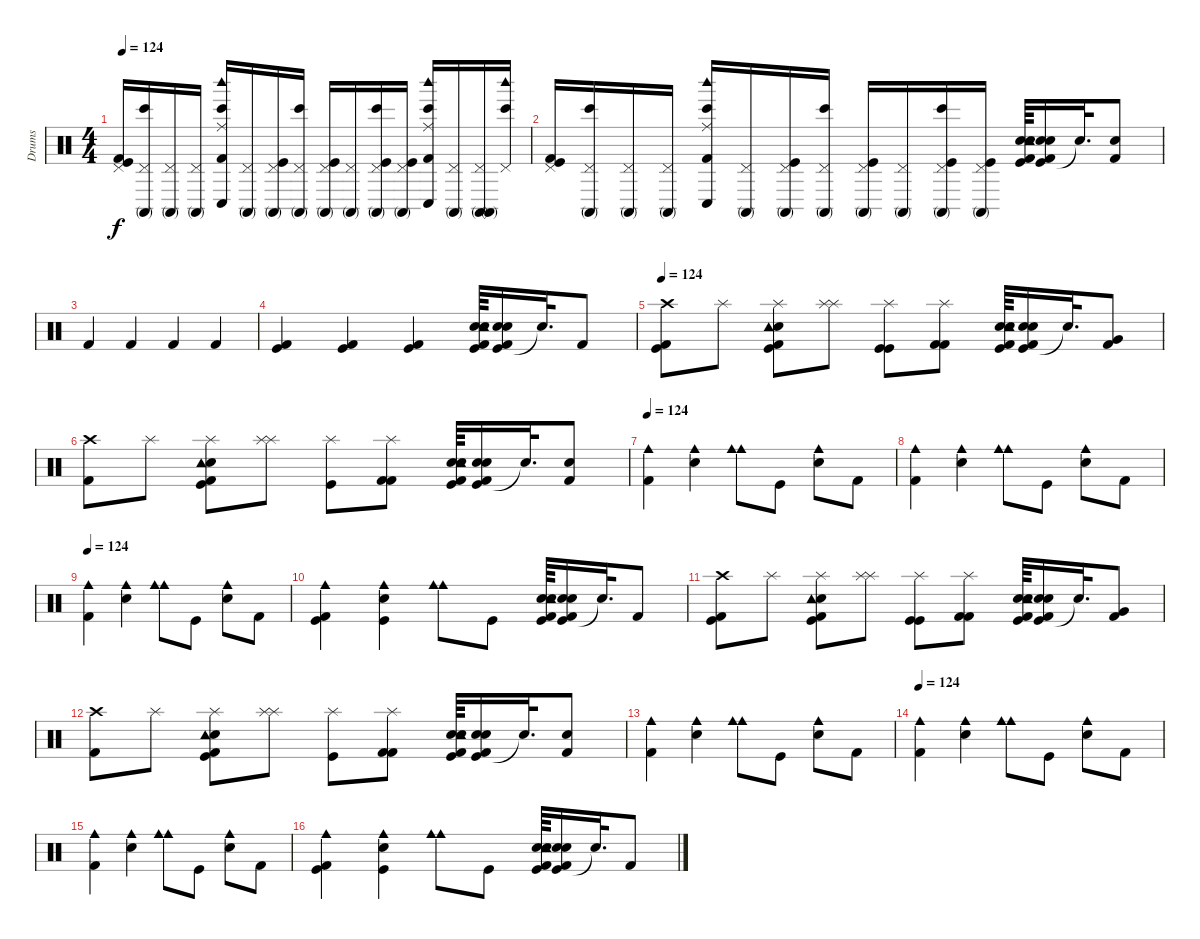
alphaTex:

\track ("Drums " "Drums ") {instrument percussion}
\staff {score}
\articulation defaults
\ts (4 4)
\tempo 124
\clef neutral
\ks c
("Kick (hit)" "Kick (hit) 2" "Pedal Hi-Hat (hit)").16{dy f} ("Conga high (mute)" "Bongo High (hit)" "Pedal Hi-Hat (hit)").16 ("Conga high (mute)" "Pedal Hi-Hat (hit)").16 ("Conga high (mute)" "Pedal Hi-Hat (hit)").16 ("Bongo High (hit)" "Woodblock high (hit)" "Kick (hit) 2" "Conga low (hit)" "Ride (middle)").16 ("Conga high (mute)" "Pedal Hi-Hat (hit)").16 ("Conga high (mute)" "Kick (hit)" "Pedal Hi-Hat (hit)").16 ("Bongo High (hit)" "Conga high (mute)" "Pedal Hi-Hat (hit)").16 ("Conga high (mute)" "Kick (hit)" "Pedal Hi-Hat (hit)").16 ("Conga high (mute)" "Pedal Hi-Hat (hit)").16 ("Kick (hit)" "Conga high (mute)" "Bongo High (hit)" "Pedal Hi-Hat (hit)").16 ("Kick (hit)" "Conga high (mute)" "Pedal Hi-Hat (hit)").16 ("Bongo High (hit)" "Woodblock high (hit)" "Kick (hit) 2" "Conga low (hit)" "Ride (middle)").16 ("Conga high (mute)" "Pedal Hi-Hat (hit)").16 ("Conga high (mute)" "Conga high (mute)" "Pedal Hi-Hat (hit)").16 ("Woodblock high (hit)" "Bongo High (hit)" "Pedal Hi-Hat (hit)").16 |
\section ("" "")
("Kick (hit)" "Kick (hit) 2" "Pedal Hi-Hat (hit)").16 ("Conga high (mute)" "Bongo High (hit)" "Pedal Hi-Hat (hit)").16 ("Conga high (mute)" "Pedal Hi-Hat (hit)").16 ("Conga high (mute)" "Pedal Hi-Hat (hit)").16 ("Bongo High (hit)" "Woodblock high (hit)" "Kick (hit) 2" "Conga low (hit)" "Ride (middle)").16 ("Conga high (mute)" "Pedal Hi-Hat (hit)").16 ("Kick (hit)" "Conga high (mute)" "Pedal Hi-Hat (hit)").16 ("Bongo High (hit)" "Conga high (mute)" "Pedal Hi-Hat (hit)").16 ("Kick (hit)" "Conga high (mute)" "Pedal Hi-Hat (hit)").16 ("Conga high (mute)" "Pedal Hi-Hat (hit)").16 ("Bongo High (hit)" "Kick (hit)" "Conga high (mute)" "Pedal Hi-Hat (hit)").16 ("Conga high (mute)" "Kick (hit)" "Pedal Hi-Hat (hit)").16 ("Kick (hit)" "Kick (hit) 2" "Electric Snare (hit)" "Tambourine (hit)" "Snare (hit) 2").64 ("Kick (hit)" "Kick (hit) 2" "Electric Snare (hit)" "Snare (hit) 2").16 "Snare (hit)"{t}.32{d} ("Electric Snare (hit)" "Kick (hit) 2").8 |
"Kick (hit) 2".4 "Kick (hit) 2".4 "Kick (hit) 2".4 "Kick (hit) 2".4 |
("Kick (hit)" "Kick (hit) 2").4 ("Kick (hit) 2" "Kick (hit)").4 ("Kick (hit) 2" "Kick (hit)").4 ("Kick (hit)" "Kick (hit) 2" "Electric Snare (hit)" "Tambourine (hit)" "Snare (hit) 2").64 ("Kick (hit)" "Kick (hit) 2" "Electric Snare (hit)" "Snare (hit) 2").16 "Snare (hit)"{t}.32{d} "Kick (hit) 2".8 |
\tempo 124
("Kick (hit) 2" "Kick (hit)" "Crash high (hit)").8 "Splash (hit)".8 ("Kick (hit)" "Kick (hit) 2" "Electric Snare (hit)" "Tambourine (hit)" "Splash (hit)").8 ("Splash (hit)" "Splash (hit)").8 ("Splash (hit)" "Kick (hit)" "Kick (hit)").8 ("Splash (hit)" "Kick (hit) 2" "Kick (hit) 2").8 ("Kick (hit)" "Kick (hit) 2" "Electric Snare (hit)" "Tambourine (hit)" "Snare (hit) 2").64 ("Kick (hit)" "Kick (hit) 2" "Electric Snare (hit)" "Snare (hit) 2").16 "Snare (hit)"{t}.32{d} ("Very Low Tom (hit)" "Kick (hit) 2").8 |
("Kick (hit) 2" "Crash high (hit)").8 "Splash (hit)".8 ("Kick (hit)" "Kick (hit) 2" "Electric Snare (hit)" "Tambourine (hit)" "Splash (hit)").8 ("Splash (hit)" "Splash (hit)").8 ("Splash (hit)" "Kick (hit)").8 ("Splash (hit)" "Kick (hit) 2" "Kick (hit) 2").8 ("Kick (hit)" "Kick (hit) 2" "Electric Snare (hit)" "Tambourine (hit)" "Snare (hit) 2").64 ("Kick (hit)" "Kick (hit) 2" "Electric Snare (hit)" "Snare (hit) 2").16 "Snare (hit)"{t}.32{d} ("Electric Snare (hit)" "Kick (hit) 2").8 |
\tempo 124
("Kick (hit) 2" "Cowbell medium (hit)").4 ("Cowbell medium (hit)" "Electric Snare (hit)").4 ("Cowbell medium (hit)" "Cowbell medium (hit)").8 "Kick (hit)".8 ("Cowbell medium (hit)" "Electric Snare (hit)").8 "Kick (hit) 2".8 |
("Kick (hit) 2" "Cowbell medium (hit)").4 ("Cowbell medium (hit)" "Electric Snare (hit)").4 ("Cowbell medium (hit)" "Cowbell medium (hit)").8 "Kick (hit)".8 ("Cowbell medium (hit)" "Electric Snare (hit)").8 "Kick (hit) 2".8 |
\tempo 124
("Kick (hit) 2" "Cowbell medium (hit)").4 ("Cowbell medium (hit)" "Electric Snare (hit)").4 ("Cowbell medium (hit)" "Cowbell medium (hit)").8 "Kick (hit)".8 ("Cowbell medium (hit)" "Electric Snare (hit)").8 "Kick (hit) 2".8 |
("Kick (hit)" "Kick (hit) 2" "Cowbell medium (hit)").4 ("Cowbell medium (hit)" "Electric Snare (hit)" "Kick (hit)").4 ("Cowbell medium (hit)" "Cowbell medium (hit)").8 "Kick (hit)".8 ("Kick (hit)" "Kick (hit) 2" "Electric Snare (hit)" "Tambourine (hit)" "Snare (hit) 2").64 ("Kick (hit)" "Kick (hit) 2" "Electric Snare (hit)" "Snare (hit) 2").16 "Snare (hit)"{t}.32{d} "Kick (hit) 2".8 |
("Kick (hit) 2" "Kick (hit)" "Crash high (hit)").8 "Splash (hit)".8 ("Kick (hit)" "Kick (hit) 2" "Electric Snare (hit)" "Tambourine (hit)" "Splash (hit)").8 ("Splash (hit)" "Splash (hit)").8 ("Splash (hit)" "Kick (hit)" "Kick (hit)").8 ("Splash (hit)" "Kick (hit) 2" "Kick (hit) 2").8 ("Kick (hit)" "Kick (hit) 2" "Electric Snare (hit)" "Tambourine (hit)" "Snare (hit) 2").64 ("Kick (hit)" "Kick (hit) 2" "Electric Snare (hit)" "Snare (hit) 2").16 "Snare (hit)"{t}.32{d} ("Very Low Tom (hit)" "Kick (hit) 2").8 |
("Kick (hit) 2" "Crash high (hit)").8 "Splash (hit)".8 ("Kick (hit)" "Kick (hit) 2" "Electric Snare (hit)" "Tambourine (hit)" "Splash (hit)").8 ("Splash (hit)" "Splash (hit)").8 ("Splash (hit)" "Kick (hit)").8 ("Splash (hit)" "Kick (hit) 2" "Kick (hit) 2").8 ("Kick (hit)" "Kick (hit) 2" "Electric Snare (hit)" "Tambourine (hit)" "Snare (hit) 2").64 ("Kick (hit)" "Kick (hit) 2" "Electric Snare (hit)" "Snare (hit) 2").16 "Snare (hit)"{t}.32{d} ("Electric Snare (hit)" "Kick (hit) 2").8 |
("Kick (hit) 2" "Cowbell medium (hit)").4 ("Cowbell medium (hit)" "Electric Snare (hit)").4 ("Cowbell medium (hit)" "Cowbell medium (hit)").8 "Kick (hit)".8 ("Cowbell medium (hit)" "Electric Snare (hit)").8 "Kick (hit) 2".8 |
\tempo 124
("Kick (hit) 2" "Cowbell medium (hit)").4 ("Cowbell medium (hit)" "Electric Snare (hit)").4 ("Cowbell medium (hit)" "Cowbell medium (hit)").8 "Kick (hit)".8 ("Cowbell medium (hit)" "Electric Snare (hit)").8 "Kick (hit) 2".8 |
("Kick (hit) 2" "Cowbell medium (hit)").4 ("Cowbell medium (hit)" "Electric Snare (hit)").4 ("Cowbell medium (hit)" "Cowbell medium (hit)").8 "Kick (hit)".8 ("Cowbell medium (hit)" "Electric Snare (hit)").8 "Kick (hit) 2".8 |
("Kick (hit)" "Kick (hit) 2" "Cowbell medium (hit)").4 ("Cowbell medium (hit)" "Electric Snare (hit)" "Kick (hit)").4 ("Cowbell medium (hit)" "Cowbell medium (hit)").8 "Kick (hit)".8 ("Kick (hit)" "Kick (hit) 2" "Electric Snare (hit)" "Tambourine (hit)" "Snare (hit) 2").64 ("Kick (hit)" "Kick (hit) 2" "Electric Snare (hit)" "Snare (hit) 2").16 "Snare (hit)"{t}.32{d} "Kick (hit) 2".8
